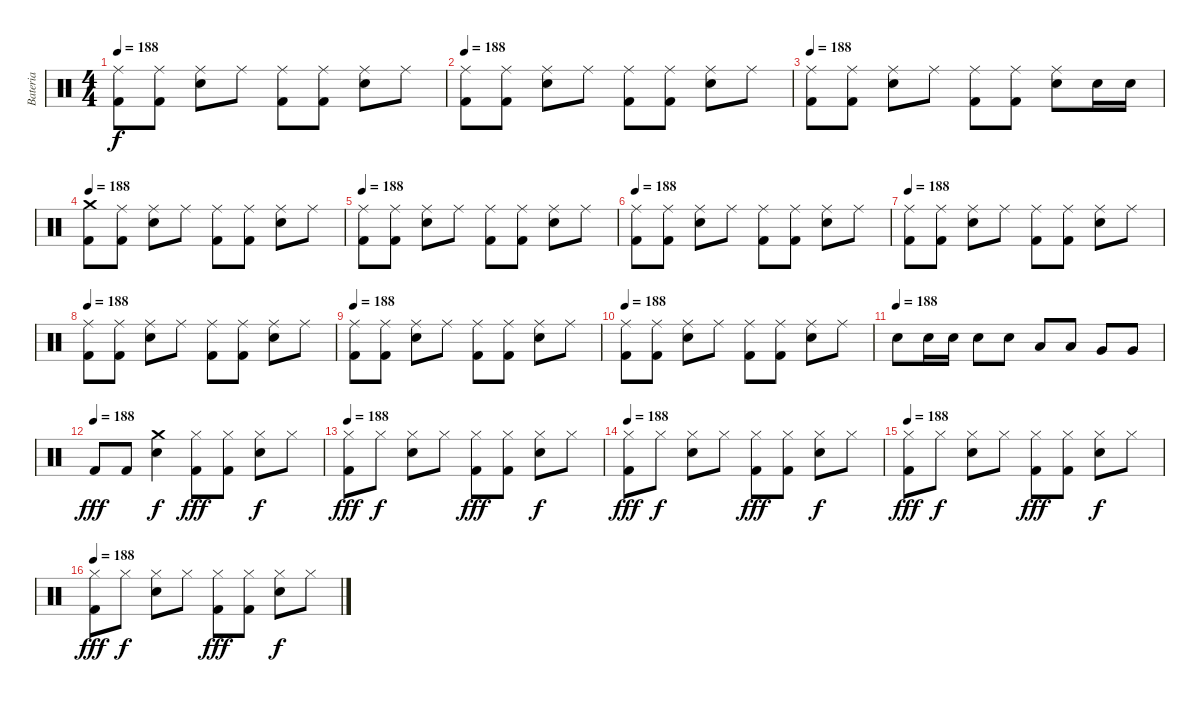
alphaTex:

\track ("Bateria" "Bateria") {instrument percussion}
\staff {score}
\articulation defaults
\ts (4 4)
\tempo 188
\clef neutral
\ks c
("Ride (middle)" "Kick (hit) 2").8{dy f} ("Ride (middle)" "Kick (hit) 2").8 ("Ride (middle)" "Electric Snare (hit)").8 "Ride (middle)".8 ("Ride (middle)" "Kick (hit) 2").8 ("Ride (middle)" "Kick (hit) 2").8 ("Ride (middle)" "Electric Snare (hit)").8 "Ride (middle)".8 |
\tempo 188
("Ride (middle)" "Kick (hit) 2").8 ("Ride (middle)" "Kick (hit) 2").8 ("Ride (middle)" "Electric Snare (hit)").8 "Ride (middle)".8 ("Ride (middle)" "Kick (hit) 2").8 ("Ride (middle)" "Kick (hit) 2").8 ("Ride (middle)" "Electric Snare (hit)").8 "Ride (middle)".8 |
\tempo 188
("Ride (middle)" "Kick (hit) 2").8 ("Ride (middle)" "Kick (hit) 2").8 ("Ride (middle)" "Electric Snare (hit)").8 "Ride (middle)".8 ("Ride (middle)" "Kick (hit) 2").8 ("Ride (middle)" "Kick (hit) 2").8 ("Ride (middle)" "Electric Snare (hit)").8 "Electric Snare (hit)".16 "Electric Snare (hit)".16 |
\tempo 188
("Crash medium (hit)" "Kick (hit) 2").8 ("Ride (middle)" "Kick (hit) 2").8 ("Ride (middle)" "Electric Snare (hit)").8 "Ride (middle)".8 ("Ride (middle)" "Kick (hit) 2").8 ("Ride (middle)" "Kick (hit) 2").8 ("Ride (middle)" "Electric Snare (hit)").8 "Ride (middle)".8 |
\tempo 188
("Ride (middle)" "Kick (hit) 2").8 ("Ride (middle)" "Kick (hit) 2").8 ("Ride (middle)" "Electric Snare (hit)").8 "Ride (middle)".8 ("Ride (middle)" "Kick (hit) 2").8 ("Ride (middle)" "Kick (hit) 2").8 ("Ride (middle)" "Electric Snare (hit)").8 "Ride (middle)".8 |
\tempo 188
("Ride (middle)" "Kick (hit) 2").8 ("Ride (middle)" "Kick (hit) 2").8 ("Ride (middle)" "Electric Snare (hit)").8 "Ride (middle)".8 ("Ride (middle)" "Kick (hit) 2").8 ("Ride (middle)" "Kick (hit) 2").8 ("Ride (middle)" "Electric Snare (hit)").8 "Ride (middle)".8 |
\tempo 188
("Ride (middle)" "Kick (hit) 2").8 ("Ride (middle)" "Kick (hit) 2").8 ("Ride (middle)" "Electric Snare (hit)").8 "Ride (middle)".8 ("Ride (middle)" "Kick (hit) 2").8 ("Ride (middle)" "Kick (hit) 2").8 ("Ride (middle)" "Electric Snare (hit)").8 "Ride (middle)".8 |
\tempo 188
("Ride (middle)" "Kick (hit) 2").8 ("Ride (middle)" "Kick (hit) 2").8 ("Ride (middle)" "Electric Snare (hit)").8 "Ride (middle)".8 ("Ride (middle)" "Kick (hit) 2").8 ("Ride (middle)" "Kick (hit) 2").8 ("Ride (middle)" "Electric Snare (hit)").8 "Ride (middle)".8 |
\tempo 188
("Ride (middle)" "Kick (hit) 2").8 ("Ride (middle)" "Kick (hit) 2").8 ("Ride (middle)" "Electric Snare (hit)").8 "Ride (middle)".8 ("Ride (middle)" "Kick (hit) 2").8 ("Ride (middle)" "Kick (hit) 2").8 ("Ride (middle)" "Electric Snare (hit)").8 "Ride (middle)".8 |
\tempo 188
("Ride (middle)" "Kick (hit) 2").8 ("Ride (middle)" "Kick (hit) 2").8 ("Ride (middle)" "Electric Snare (hit)").8 "Ride (middle)".8 ("Ride (middle)" "Kick (hit) 2").8 ("Ride (middle)" "Kick (hit) 2").8 ("Ride (middle)" "Electric Snare (hit)").8 "Ride (middle)".8 |
\tempo (188)
"Electric Snare (hit)".8 "Electric Snare (hit)".16 "Electric Snare (hit)".16 "Electric Snare (hit)".8 "Electric Snare (hit)".8 "Low Tom (hit)".8 "Low Tom (hit)".8 "Very Low Tom (hit)".8 "Very Low Tom (hit)".8 |
\tempo (188)
"Kick (hit) 2".8{dy fff} "Kick (hit) 2".8 ("Crash medium (hit)" "Electric Snare (hit)").4{dy f} ("Hi-Hat (closed)" "Kick (hit) 2").8{dy fff} ("Hi-Hat (closed)" "Kick (hit) 2").8 ("Hi-Hat (closed)" "Electric Snare (hit)").8{dy f} "Hi-Hat (closed)".8 |
\tempo 188
("Hi-Hat (closed)" "Kick (hit) 2").8{dy fff} "Hi-Hat (closed)".8{dy f} ("Hi-Hat (closed)" "Electric Snare (hit)").8 "Hi-Hat (closed)".8 ("Hi-Hat (closed)" "Kick (hit) 2").8{dy fff} ("Hi-Hat (closed)" "Kick (hit) 2").8 ("Hi-Hat (closed)" "Electric Snare (hit)").8{dy f} "Hi-Hat (closed)".8 |
\tempo 188
("Hi-Hat (closed)" "Kick (hit) 2").8{dy fff} "Hi-Hat (closed)".8{dy f} ("Hi-Hat (closed)" "Electric Snare (hit)").8 "Hi-Hat (closed)".8 ("Hi-Hat (closed)" "Kick (hit) 2").8{dy fff} ("Hi-Hat (closed)" "Kick (hit) 2").8 ("Hi-Hat (closed)" "Electric Snare (hit)").8{dy f} "Hi-Hat (closed)".8 |
\tempo 188
("Hi-Hat (closed)" "Kick (hit) 2").8{dy fff} "Hi-Hat (closed)".8{dy f} ("Hi-Hat (closed)" "Electric Snare (hit)").8 "Hi-Hat (closed)".8 ("Hi-Hat (closed)" "Kick (hit) 2").8{dy fff} ("Hi-Hat (closed)" "Kick (hit) 2").8 ("Hi-Hat (closed)" "Electric Snare (hit)").8{dy f} "Hi-Hat (closed)".8 |
\tempo 188
("Hi-Hat (closed)" "Kick (hit) 2").8{dy fff} "Hi-Hat (closed)".8{dy f} ("Hi-Hat (closed)" "Electric Snare (hit)").8 "Hi-Hat (closed)".8 ("Hi-Hat (closed)" "Kick (hit) 2").8{dy fff} ("Hi-Hat (closed)" "Kick (hit) 2").8 ("Hi-Hat (closed)" "Electric Snare (hit)").8{dy f} "Hi-Hat (closed)".8
